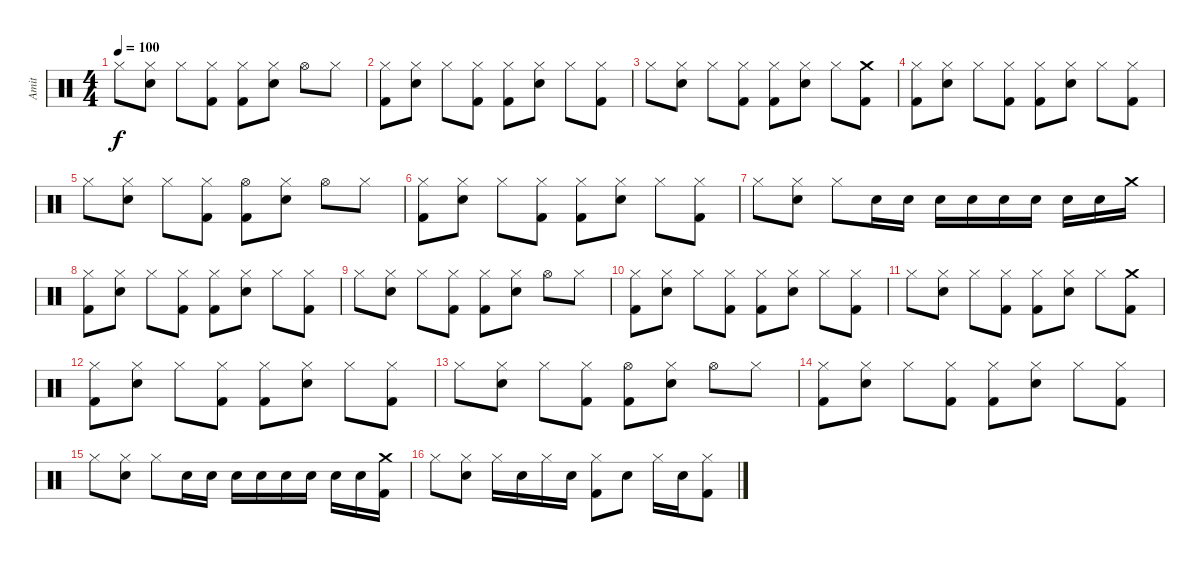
\track ("Amit" "Amit") {instrument percussion}
\staff {score}
\articulation defaults
\ts (4 4)
\tempo 100
\clef neutral
\ks c "Hi-Hat (closed)".8{dy f}
("Hi-Hat (closed)" "Snare (hit) 2").8 "Hi-Hat (closed)".8 ("Hi-Hat (closed)" "Kick (hit) 2").8 ("Hi-Hat (closed)" "Kick (hit) 2").8 ("Hi-Hat (closed)" "Snare (hit) 2").8 "Hi-Hat (open)".8 "Hi-Hat (closed)".8 |
("Hi-Hat (closed)" "Kick (hit) 2").8 ("Hi-Hat (closed)" "Snare (hit) 2").8 "Hi-Hat (closed)".8 ("Hi-Hat (closed)" "Kick (hit) 2").8 ("Hi-Hat (closed)" "Kick (hit) 2").8 ("Hi-Hat (closed)" "Snare (hit) 2").8 "Hi-Hat (closed)".8 ("Hi-Hat (closed)" "Kick (hit) 2").8 |
"Hi-Hat (closed)".8 ("Hi-Hat (closed)" "Snare (hit) 2").8 "Hi-Hat (closed)".8 ("Hi-Hat (closed)" "Kick (hit) 2").8 ("Hi-Hat (closed)" "Kick (hit) 2").8 ("Hi-Hat (closed)" "Snare (hit) 2").8 "Hi-Hat (closed)".8 ("Crash medium (hit)" "Kick (hit) 2").8 |
("Hi-Hat (closed)" "Kick (hit) 2").8 ("Hi-Hat (closed)" "Snare (hit) 2").8 "Hi-Hat (closed)".8 ("Hi-Hat (closed)" "Kick (hit) 2").8 ("Hi-Hat (closed)" "Kick (hit) 2").8 ("Hi-Hat (closed)" "Snare (hit) 2").8 "Hi-Hat (closed)".8 ("Hi-Hat (closed)" "Kick (hit) 2").8 |
"Hi-Hat (closed)".8 ("Hi-Hat (closed)" "Snare (hit) 2").8 "Hi-Hat (closed)".8 ("Hi-Hat (closed)" "Kick (hit) 2").8 ("Hi-Hat (open)" "Kick (hit) 2").8 ("Hi-Hat (closed)" "Snare (hit) 2").8 "Hi-Hat (open)".8 "Hi-Hat (closed)".8 |
("Hi-Hat (closed)" "Kick (hit) 2").8 ("Hi-Hat (closed)" "Snare (hit) 2").8 "Hi-Hat (closed)".8 ("Hi-Hat (closed)" "Kick (hit) 2").8 ("Hi-Hat (closed)" "Kick (hit) 2").8 ("Hi-Hat (closed)" "Snare (hit) 2").8 "Hi-Hat (closed)".8 ("Hi-Hat (closed)" "Kick (hit) 2").8 |
"Hi-Hat (closed)".8 ("Hi-Hat (closed)" "Snare (hit) 2").8 "Hi-Hat (closed)".8 "Snare (hit) 2".16 "Snare (hit) 2".16 "Snare (hit) 2".16 "Snare (hit) 2".16 "Snare (hit) 2".16 "Snare (hit) 2".16 "Snare (hit) 2".16 "Snare (hit) 2".16 "Crash medium (hit)".16 |
("Hi-Hat (closed)" "Kick (hit) 2").8 ("Hi-Hat (closed)" "Snare (hit) 2").8 "Hi-Hat (closed)".8 ("Hi-Hat (closed)" "Kick (hit) 2").8 ("Hi-Hat (closed)" "Kick (hit) 2").8 ("Hi-Hat (closed)" "Snare (hit) 2").8 "Hi-Hat (closed)".8 ("Hi-Hat (closed)" "Kick (hit) 2").8 |
"Hi-Hat (closed)".8 ("Hi-Hat (closed)" "Snare (hit) 2").8 "Hi-Hat (closed)".8 ("Hi-Hat (closed)" "Kick (hit) 2").8 ("Hi-Hat (closed)" "Kick (hit) 2").8 ("Hi-Hat (closed)" "Snare (hit) 2").8 "Hi-Hat (open)".8 "Hi-Hat (closed)".8 |
("Hi-Hat (closed)" "Kick (hit) 2").8 ("Hi-Hat (closed)" "Snare (hit) 2").8 "Hi-Hat (closed)".8 ("Hi-Hat (closed)" "Kick (hit) 2").8 ("Hi-Hat (closed)" "Kick (hit) 2").8 ("Hi-Hat (closed)" "Snare (hit) 2").8 "Hi-Hat (closed)".8 ("Hi-Hat (closed)" "Kick (hit) 2").8 |
"Hi-Hat (closed)".8 ("Hi-Hat (closed)" "Snare (hit) 2").8 "Hi-Hat (closed)".8 ("Hi-Hat (closed)" "Kick (hit) 2").8 ("Hi-Hat (closed)" "Kick (hit) 2").8 ("Hi-Hat (closed)" "Snare (hit) 2").8 "Hi-Hat (closed)".8 ("Crash medium (hit)" "Kick (hit) 2").8 |
("Hi-Hat (closed)" "Kick (hit) 2").8 ("Hi-Hat (closed)" "Snare (hit) 2").8 "Hi-Hat (closed)".8 ("Hi-Hat (closed)" "Kick (hit) 2").8 ("Hi-Hat (closed)" "Kick (hit) 2").8 ("Hi-Hat (closed)" "Snare (hit) 2").8 "Hi-Hat (closed)".8 ("Hi-Hat (closed)" "Kick (hit) 2").8 |
"Hi-Hat (closed)".8 ("Hi-Hat (closed)" "Snare (hit) 2").8 "Hi-Hat (closed)".8 ("Hi-Hat (closed)" "Kick (hit) 2").8 ("Hi-Hat (open)" "Kick (hit) 2").8 ("Hi-Hat (closed)" "Snare (hit) 2").8 "Hi-Hat (open)".8 "Hi-Hat (closed)".8 |
("Hi-Hat (closed)" "Kick (hit) 2").8 ("Hi-Hat (closed)" "Snare (hit) 2").8 "Hi-Hat (closed)".8 ("Hi-Hat (closed)" "Kick (hit) 2").8 ("Hi-Hat (closed)" "Kick (hit) 2").8 ("Hi-Hat (closed)" "Snare (hit) 2").8 "Hi-Hat (closed)".8 ("Hi-Hat (closed)" "Kick (hit) 2").8 |
"Hi-Hat (closed)".8 ("Hi-Hat (closed)" "Snare (hit) 2").8 "Hi-Hat (closed)".8 "Snare (hit) 2".16 "Snare (hit) 2".16 "Snare (hit) 2".16 "Snare (hit) 2".16 "Snare (hit) 2".16 "Snare (hit) 2".16 "Snare (hit) 2".16 "Snare (hit) 2".16 ("Crash medium (hit)" "Kick (hit) 2").16 |
"Hi-Hat (closed)".8 ("Hi-Hat (closed)" "Snare (hit) 2").8 "Hi-Hat (closed)".16 "Snare (hit) 2".16 "Hi-Hat (closed)".16 "Snare (hit) 2".16 ("Hi-Hat (closed)" "Kick (hit) 2").8 "Snare (hit) 2".8 "Hi-Hat (closed)".16 "Snare (hit) 2".16 ("Hi-Hat (closed)" "Kick (hit) 2").8
